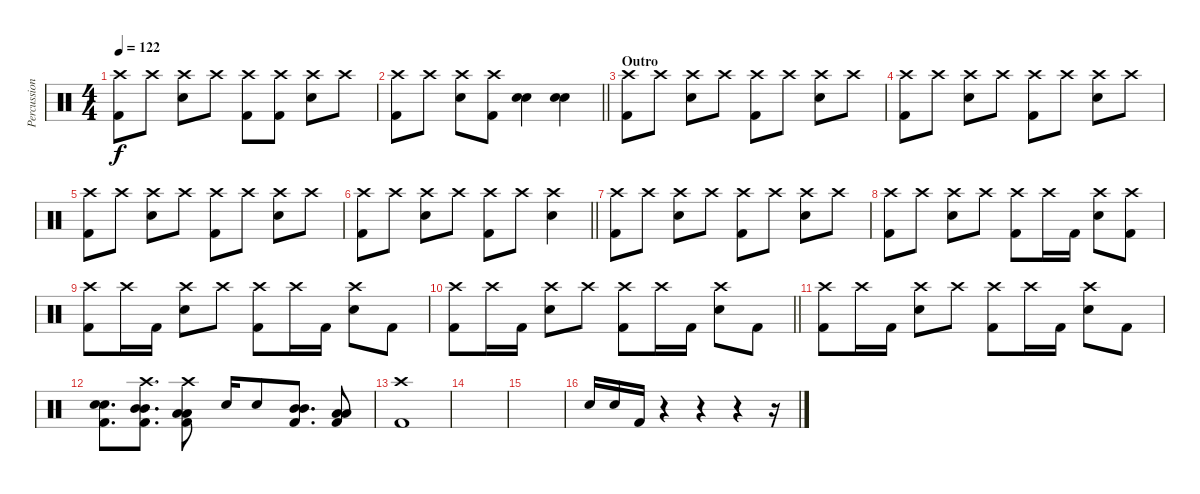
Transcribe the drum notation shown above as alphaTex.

\track ("Percussion" "Percussion") {instrument percussion}
\staff {score}
\articulation defaults
\ts (4 4)
\tempo 122
\clef neutral
\ks c
("Crash high (hit)" "Kick (hit) 2").8{dy f} "Crash high (hit)".8 ("Crash high (hit)" "Electric Snare (hit)").8 "Crash high (hit)".8 ("Crash high (hit)" "Kick (hit) 2").8 ("Crash high (hit)" "Kick (hit) 2").8 ("Crash high (hit)" "Electric Snare (hit)").8 "Crash high (hit)".8 |
\barLineRight lightlight
("Crash high (hit)" "Kick (hit) 2").8 "Crash high (hit)".8 ("Crash high (hit)" "Electric Snare (hit)").8 ("Crash high (hit)" "Kick (hit) 2").8 ("Electric Snare (hit)" "Electric Snare (hit)").4 ("Electric Snare (hit)" "Electric Snare (hit)").4 |
\section ("" "Outro")
("Crash high (hit)" "Kick (hit) 2").8 "Crash high (hit)".8 ("Crash high (hit)" "Electric Snare (hit)").8 "Crash high (hit)".8 ("Crash high (hit)" "Kick (hit) 2").8 "Crash high (hit)".8 ("Crash high (hit)" "Electric Snare (hit)").8 "Crash high (hit)".8 |
("Crash high (hit)" "Kick (hit) 2").8 "Crash high (hit)".8 ("Crash high (hit)" "Electric Snare (hit)").8 "Crash high (hit)".8 ("Crash high (hit)" "Kick (hit) 2").8 "Crash high (hit)".8 ("Crash high (hit)" "Electric Snare (hit)").8 "Crash high (hit)".8 |
("Crash high (hit)" "Kick (hit) 2").8 "Crash high (hit)".8 ("Crash high (hit)" "Electric Snare (hit)").8 "Crash high (hit)".8 ("Crash high (hit)" "Kick (hit) 2").8 "Crash high (hit)".8 ("Crash high (hit)" "Electric Snare (hit)").8 "Crash high (hit)".8 |
\barLineRight lightlight
("Crash high (hit)" "Kick (hit) 2").8 "Crash high (hit)".8 ("Crash high (hit)" "Electric Snare (hit)").8 "Crash high (hit)".8 ("Crash high (hit)" "Kick (hit) 2").8 "Crash high (hit)".8 ("Crash high (hit)" "Electric Snare (hit)").4 |
("Crash high (hit)" "Kick (hit) 2").8 "Crash high (hit)".8 ("Crash high (hit)" "Electric Snare (hit)").8 "Crash high (hit)".8 ("Crash high (hit)" "Kick (hit) 2").8 "Crash high (hit)".8 ("Crash high (hit)" "Electric Snare (hit)").8 "Crash high (hit)".8 |
("Crash high (hit)" "Kick (hit) 2").8 "Crash high (hit)".8 ("Crash high (hit)" "Electric Snare (hit)").8 "Crash high (hit)".8 ("Crash high (hit)" "Kick (hit) 2").8 "Crash high (hit)".16 "Kick (hit) 2".16 ("Crash high (hit)" "Electric Snare (hit)").8 ("Crash high (hit)" "Kick (hit) 2").8 |
("Crash high (hit)" "Kick (hit) 2").8 "Crash high (hit)".16 "Kick (hit) 2".16 ("Crash high (hit)" "Electric Snare (hit)").8 "Crash high (hit)".8 ("Crash high (hit)" "Kick (hit) 2").8 "Crash high (hit)".16 "Kick (hit) 2".16 ("Crash high (hit)" "Electric Snare (hit)").8 "Kick (hit) 2".8 |
\barLineRight lightlight
("Crash high (hit)" "Kick (hit) 2").8 "Crash high (hit)".16 "Kick (hit) 2".16 ("Crash high (hit)" "Electric Snare (hit)").8 "Crash high (hit)".8 ("Crash high (hit)" "Kick (hit) 2").8 "Crash high (hit)".16 "Kick (hit) 2".16 ("Crash high (hit)" "Electric Snare (hit)").8 "Kick (hit) 2".8 |
("Crash high (hit)" "Kick (hit) 2").8 "Crash high (hit)".16 "Kick (hit) 2".16 ("Crash high (hit)" "Electric Snare (hit)").8 "Crash high (hit)".8 ("Crash high (hit)" "Kick (hit) 2").8 "Crash high (hit)".16 "Kick (hit) 2".16 ("Crash high (hit)" "Electric Snare (hit)").8 "Kick (hit) 2".8 |
("Electric Snare (hit)" "Electric Snare (hit)" "Kick (hit) 2").8{d} ("Crash high (hit)" "Mid Tom (hit)" "Mid Tom (hit)" "Kick (hit) 2").8{d} ("Crash high (hit)" "Low Tom (hit)" "Low Tom (hit)" "Kick (hit) 2").8 "Electric Snare (hit)".16 "Electric Snare (hit)".8 ("Mid Tom (hit)" "Mid Tom (hit)" "Kick (hit) 2").8{d} ("Low Tom (hit)" "Low Tom (hit)" "Kick (hit) 2").8 |
("Crash high (hit)" "Kick (hit) 2").1 |
|
|
"Electric Snare (hit)".16 "Electric Snare (hit)".16 "Kick (hit) 2".16 r.4 r.4 r.4 r.16
